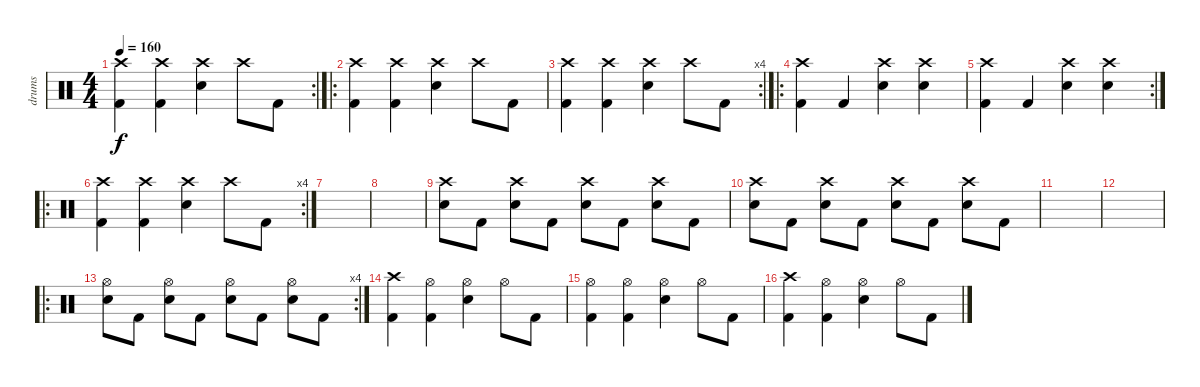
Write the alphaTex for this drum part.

\track ("drums" "drums") {instrument percussion}
\staff {score}
\articulation defaults
\rc 2
\ts (4 4)
\tempo 160
\clef neutral
\ks c
("Crash high (hit)" "Kick (hit) 2").4{dy f} ("Crash high (hit)" "Kick (hit) 2").4 ("Crash high (hit)" "Snare (hit) 2").4 "Crash high (hit)".8 "Kick (hit) 2".8 |
\ro
("Crash high (hit)" "Kick (hit) 2").4 ("Crash high (hit)" "Kick (hit) 2").4 ("Crash high (hit)" "Snare (hit) 2").4 "Crash high (hit)".8 "Kick (hit) 2".8 |
\rc 4
("Crash high (hit)" "Kick (hit) 2").4 ("Crash high (hit)" "Kick (hit) 2").4 ("Crash high (hit)" "Snare (hit) 2").4 "Crash high (hit)".8 "Kick (hit) 2".8 |
\ro
("Crash high (hit)" "Kick (hit) 2").4 "Kick (hit) 2".4 ("Crash high (hit)" "Snare (hit) 2").4 ("Crash high (hit)" "Snare (hit) 2").4 |
\rc 2
("Crash high (hit)" "Kick (hit) 2").4 "Kick (hit) 2".4 ("Crash high (hit)" "Snare (hit) 2").4 ("Crash high (hit)" "Snare (hit) 2").4 |
\ro
\rc 4
("Crash high (hit)" "Kick (hit) 2").4 ("Crash high (hit)" "Kick (hit) 2").4 ("Crash high (hit)" "Snare (hit) 2").4 "Crash high (hit)".8 "Kick (hit) 2".8 |
|
|
("Crash high (hit)" "Snare (hit) 2").8 "Kick (hit) 2".8 ("Crash high (hit)" "Snare (hit) 2").8 "Kick (hit) 2".8 ("Crash high (hit)" "Snare (hit) 2").8 "Kick (hit) 2".8 ("Crash high (hit)" "Snare (hit) 2").8 "Kick (hit) 2".8 |
("Crash high (hit)" "Snare (hit) 2").8 "Kick (hit) 2".8 ("Crash high (hit)" "Snare (hit) 2").8 "Kick (hit) 2".8 ("Crash high (hit)" "Snare (hit) 2").8 "Kick (hit) 2".8 ("Crash high (hit)" "Snare (hit) 2").8 "Kick (hit) 2".8 |
|
|
\ro
\rc 4
("Hi-Hat (open)" "Snare (hit) 2").8 "Kick (hit) 2".8 ("Hi-Hat (open)" "Snare (hit) 2").8 "Kick (hit) 2".8 ("Hi-Hat (open)" "Snare (hit) 2").8 "Kick (hit) 2".8 ("Hi-Hat (open)" "Snare (hit) 2").8 "Kick (hit) 2".8 |
("Crash high (hit)" "Kick (hit) 2").4 ("Hi-Hat (open)" "Kick (hit) 2").4 ("Hi-Hat (open)" "Snare (hit) 2").4 "Hi-Hat (open)".8 "Kick (hit) 2".8 |
("Hi-Hat (open)" "Kick (hit) 2").4 ("Hi-Hat (open)" "Kick (hit) 2").4 ("Hi-Hat (open)" "Snare (hit) 2").4 "Hi-Hat (open)".8 "Kick (hit) 2".8 |
("Crash high (hit)" "Kick (hit) 2").4 ("Hi-Hat (open)" "Kick (hit) 2").4 ("Hi-Hat (open)" "Snare (hit) 2").4 "Hi-Hat (open)".8 "Kick (hit) 2".8
